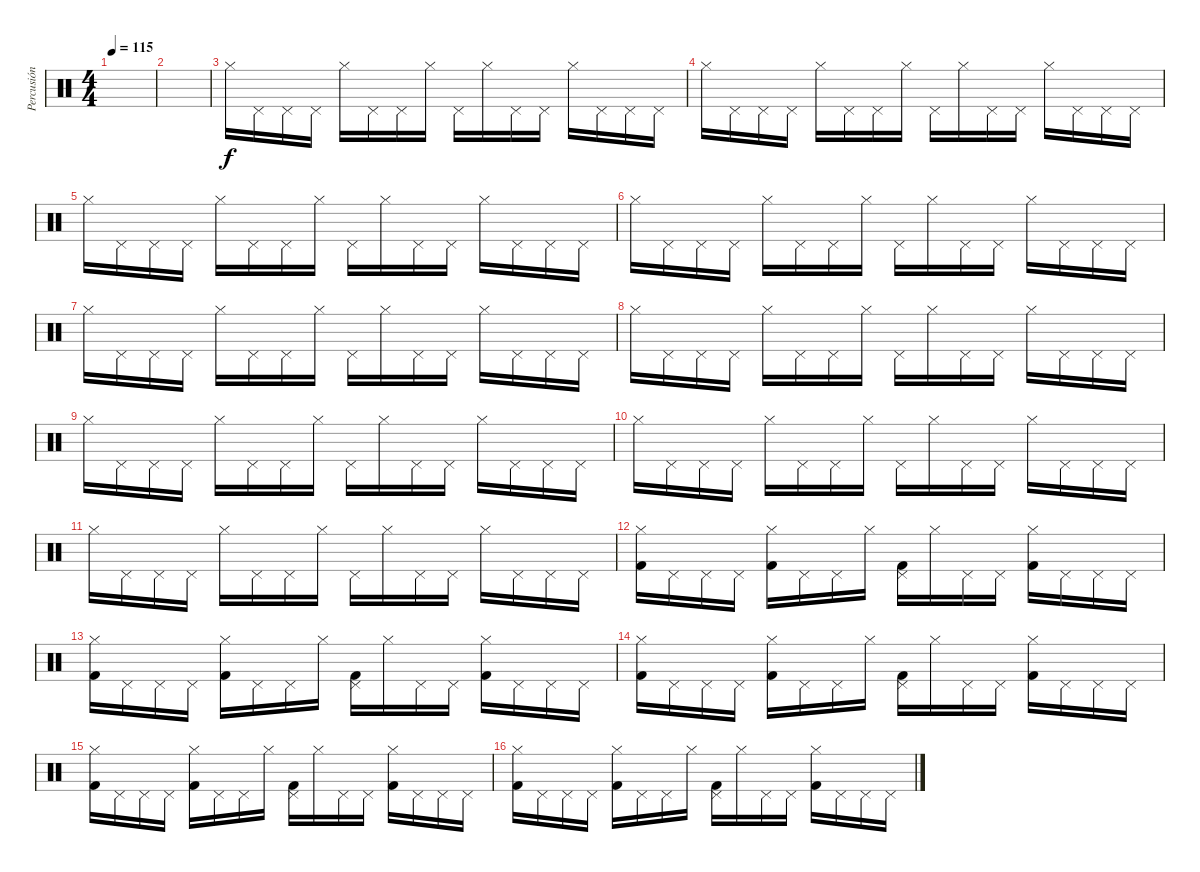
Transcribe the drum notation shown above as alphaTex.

\track ("Percusión" "Percusión") {instrument percussion}
\staff {score}
\articulation defaults
\ts (4 4)
\tempo 115
\clef neutral
\ks c
|
|
"Hi-Hat (closed)".16 "Pedal Hi-Hat (hit)".16 "Pedal Hi-Hat (hit)".16 "Pedal Hi-Hat (hit)".16 "Hi-Hat (closed)".16 "Pedal Hi-Hat (hit)".16 "Pedal Hi-Hat (hit)".16 "Hi-Hat (closed)".16 "Pedal Hi-Hat (hit)".16 "Hi-Hat (closed)".16 "Pedal Hi-Hat (hit)".16 "Pedal Hi-Hat (hit)".16 "Hi-Hat (closed)".16 "Pedal Hi-Hat (hit)".16 "Pedal Hi-Hat (hit)".16 "Pedal Hi-Hat (hit)".16 |
"Hi-Hat (closed)".16 "Pedal Hi-Hat (hit)".16 "Pedal Hi-Hat (hit)".16 "Pedal Hi-Hat (hit)".16 "Hi-Hat (closed)".16 "Pedal Hi-Hat (hit)".16 "Pedal Hi-Hat (hit)".16 "Hi-Hat (closed)".16 "Pedal Hi-Hat (hit)".16 "Hi-Hat (closed)".16 "Pedal Hi-Hat (hit)".16 "Pedal Hi-Hat (hit)".16 "Hi-Hat (closed)".16 "Pedal Hi-Hat (hit)".16 "Pedal Hi-Hat (hit)".16 "Pedal Hi-Hat (hit)".16 |
"Hi-Hat (closed)".16 "Pedal Hi-Hat (hit)".16 "Pedal Hi-Hat (hit)".16 "Pedal Hi-Hat (hit)".16 "Hi-Hat (closed)".16 "Pedal Hi-Hat (hit)".16 "Pedal Hi-Hat (hit)".16 "Hi-Hat (closed)".16 "Pedal Hi-Hat (hit)".16 "Hi-Hat (closed)".16 "Pedal Hi-Hat (hit)".16 "Pedal Hi-Hat (hit)".16 "Hi-Hat (closed)".16 "Pedal Hi-Hat (hit)".16 "Pedal Hi-Hat (hit)".16 "Pedal Hi-Hat (hit)".16 |
"Hi-Hat (closed)".16 "Pedal Hi-Hat (hit)".16 "Pedal Hi-Hat (hit)".16 "Pedal Hi-Hat (hit)".16 "Hi-Hat (closed)".16 "Pedal Hi-Hat (hit)".16 "Pedal Hi-Hat (hit)".16 "Hi-Hat (closed)".16 "Pedal Hi-Hat (hit)".16 "Hi-Hat (closed)".16 "Pedal Hi-Hat (hit)".16 "Pedal Hi-Hat (hit)".16 "Hi-Hat (closed)".16 "Pedal Hi-Hat (hit)".16 "Pedal Hi-Hat (hit)".16 "Pedal Hi-Hat (hit)".16 |
"Hi-Hat (closed)".16 "Pedal Hi-Hat (hit)".16 "Pedal Hi-Hat (hit)".16 "Pedal Hi-Hat (hit)".16 "Hi-Hat (closed)".16 "Pedal Hi-Hat (hit)".16 "Pedal Hi-Hat (hit)".16 "Hi-Hat (closed)".16 "Pedal Hi-Hat (hit)".16 "Hi-Hat (closed)".16 "Pedal Hi-Hat (hit)".16 "Pedal Hi-Hat (hit)".16 "Hi-Hat (closed)".16 "Pedal Hi-Hat (hit)".16 "Pedal Hi-Hat (hit)".16 "Pedal Hi-Hat (hit)".16 |
"Hi-Hat (closed)".16 "Pedal Hi-Hat (hit)".16 "Pedal Hi-Hat (hit)".16 "Pedal Hi-Hat (hit)".16 "Hi-Hat (closed)".16 "Pedal Hi-Hat (hit)".16 "Pedal Hi-Hat (hit)".16 "Hi-Hat (closed)".16 "Pedal Hi-Hat (hit)".16 "Hi-Hat (closed)".16 "Pedal Hi-Hat (hit)".16 "Pedal Hi-Hat (hit)".16 "Hi-Hat (closed)".16 "Pedal Hi-Hat (hit)".16 "Pedal Hi-Hat (hit)".16 "Pedal Hi-Hat (hit)".16 |
"Hi-Hat (closed)".16 "Pedal Hi-Hat (hit)".16 "Pedal Hi-Hat (hit)".16 "Pedal Hi-Hat (hit)".16 "Hi-Hat (closed)".16 "Pedal Hi-Hat (hit)".16 "Pedal Hi-Hat (hit)".16 "Hi-Hat (closed)".16 "Pedal Hi-Hat (hit)".16 "Hi-Hat (closed)".16 "Pedal Hi-Hat (hit)".16 "Pedal Hi-Hat (hit)".16 "Hi-Hat (closed)".16 "Pedal Hi-Hat (hit)".16 "Pedal Hi-Hat (hit)".16 "Pedal Hi-Hat (hit)".16 |
"Hi-Hat (closed)".16 "Pedal Hi-Hat (hit)".16 "Pedal Hi-Hat (hit)".16 "Pedal Hi-Hat (hit)".16 "Hi-Hat (closed)".16 "Pedal Hi-Hat (hit)".16 "Pedal Hi-Hat (hit)".16 "Hi-Hat (closed)".16 "Pedal Hi-Hat (hit)".16 "Hi-Hat (closed)".16 "Pedal Hi-Hat (hit)".16 "Pedal Hi-Hat (hit)".16 "Hi-Hat (closed)".16 "Pedal Hi-Hat (hit)".16 "Pedal Hi-Hat (hit)".16 "Pedal Hi-Hat (hit)".16 |
"Hi-Hat (closed)".16 "Pedal Hi-Hat (hit)".16 "Pedal Hi-Hat (hit)".16 "Pedal Hi-Hat (hit)".16 "Hi-Hat (closed)".16 "Pedal Hi-Hat (hit)".16 "Pedal Hi-Hat (hit)".16 "Hi-Hat (closed)".16 "Pedal Hi-Hat (hit)".16 "Hi-Hat (closed)".16 "Pedal Hi-Hat (hit)".16 "Pedal Hi-Hat (hit)".16 "Hi-Hat (closed)".16 "Pedal Hi-Hat (hit)".16 "Pedal Hi-Hat (hit)".16 "Pedal Hi-Hat (hit)".16 |
("Hi-Hat (closed)" "Kick (hit) 2").16 "Pedal Hi-Hat (hit)".16 "Pedal Hi-Hat (hit)".16 "Pedal Hi-Hat (hit)".16 ("Hi-Hat (closed)" "Kick (hit) 2").16 "Pedal Hi-Hat (hit)".16 "Pedal Hi-Hat (hit)".16 "Hi-Hat (closed)".16 ("Pedal Hi-Hat (hit)" "Kick (hit) 2").16 "Hi-Hat (closed)".16 "Pedal Hi-Hat (hit)".16 "Pedal Hi-Hat (hit)".16 ("Hi-Hat (closed)" "Kick (hit) 2").16 "Pedal Hi-Hat (hit)".16 "Pedal Hi-Hat (hit)".16 "Pedal Hi-Hat (hit)".16 |
("Hi-Hat (closed)" "Kick (hit) 2").16 "Pedal Hi-Hat (hit)".16 "Pedal Hi-Hat (hit)".16 "Pedal Hi-Hat (hit)".16 ("Hi-Hat (closed)" "Kick (hit) 2").16 "Pedal Hi-Hat (hit)".16 "Pedal Hi-Hat (hit)".16 "Hi-Hat (closed)".16 ("Pedal Hi-Hat (hit)" "Kick (hit) 2").16 "Hi-Hat (closed)".16 "Pedal Hi-Hat (hit)".16 "Pedal Hi-Hat (hit)".16 ("Hi-Hat (closed)" "Kick (hit) 2").16 "Pedal Hi-Hat (hit)".16 "Pedal Hi-Hat (hit)".16 "Pedal Hi-Hat (hit)".16 |
("Hi-Hat (closed)" "Kick (hit) 2").16 "Pedal Hi-Hat (hit)".16 "Pedal Hi-Hat (hit)".16 "Pedal Hi-Hat (hit)".16 ("Hi-Hat (closed)" "Kick (hit) 2").16 "Pedal Hi-Hat (hit)".16 "Pedal Hi-Hat (hit)".16 "Hi-Hat (closed)".16 ("Pedal Hi-Hat (hit)" "Kick (hit) 2").16 "Hi-Hat (closed)".16 "Pedal Hi-Hat (hit)".16 "Pedal Hi-Hat (hit)".16 ("Hi-Hat (closed)" "Kick (hit) 2").16 "Pedal Hi-Hat (hit)".16 "Pedal Hi-Hat (hit)".16 "Pedal Hi-Hat (hit)".16 |
("Hi-Hat (closed)" "Kick (hit) 2").16 "Pedal Hi-Hat (hit)".16 "Pedal Hi-Hat (hit)".16 "Pedal Hi-Hat (hit)".16 ("Hi-Hat (closed)" "Kick (hit) 2").16 "Pedal Hi-Hat (hit)".16 "Pedal Hi-Hat (hit)".16 "Hi-Hat (closed)".16 ("Pedal Hi-Hat (hit)" "Kick (hit) 2").16 "Hi-Hat (closed)".16 "Pedal Hi-Hat (hit)".16 "Pedal Hi-Hat (hit)".16 ("Hi-Hat (closed)" "Kick (hit) 2").16 "Pedal Hi-Hat (hit)".16 "Pedal Hi-Hat (hit)".16 "Pedal Hi-Hat (hit)".16 |
("Hi-Hat (closed)" "Kick (hit) 2").16 "Pedal Hi-Hat (hit)".16 "Pedal Hi-Hat (hit)".16 "Pedal Hi-Hat (hit)".16 ("Hi-Hat (closed)" "Kick (hit) 2").16 "Pedal Hi-Hat (hit)".16 "Pedal Hi-Hat (hit)".16 "Hi-Hat (closed)".16 ("Pedal Hi-Hat (hit)" "Kick (hit) 2").16 "Hi-Hat (closed)".16 "Pedal Hi-Hat (hit)".16 "Pedal Hi-Hat (hit)".16 ("Hi-Hat (closed)" "Kick (hit) 2").16 "Pedal Hi-Hat (hit)".16 "Pedal Hi-Hat (hit)".16 "Pedal Hi-Hat (hit)".16
